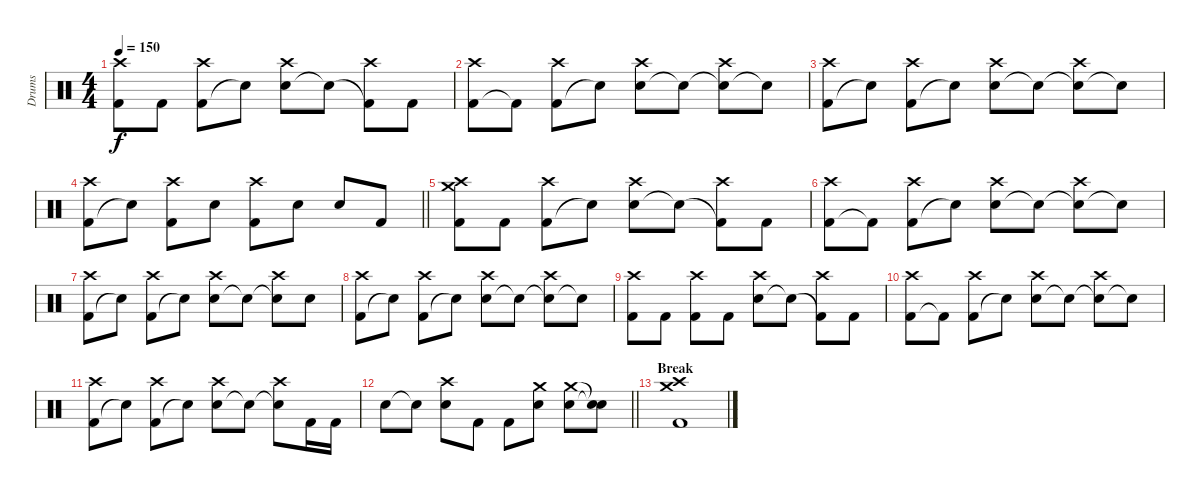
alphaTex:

\track ("Drums" "Drums") {instrument percussion}
\staff {score}
\articulation defaults
\ts (4 4)
\tempo 150
\clef neutral
\ks c
("Kick (hit) 2" "Crash high (hit)").8{dy f} "Kick (hit) 2".8 ("Kick (hit) 2" "Crash high (hit)").8 "Snare (hit)"{t}.8 ("Electric Snare (hit)" "Crash high (hit)").8 "Snare (hit)"{t}.8 ("Kick (hit) 2"{t} "Crash high (hit)").8 "Kick (hit) 2".8 |
("Kick (hit) 2" "Crash high (hit)").8 "Kick (hit) 2"{t}.8 ("Kick (hit) 2" "Crash high (hit)").8 "Electric Snare (hit)"{t}.8 ("Electric Snare (hit)" "Crash high (hit)").8 "Snare (hit)"{t}.8 ("Snare (hit)"{t} "Crash high (hit)").8 "Snare (hit)"{t}.8 |
("Kick (hit) 2" "Crash high (hit)").8 "Snare (hit)"{t}.8 ("Kick (hit) 2" "Crash high (hit)").8 "Snare (hit)"{t}.8 ("Electric Snare (hit)" "Crash high (hit)").8 "Snare (hit)"{t}.8 ("Snare (hit)"{t} "Crash high (hit)").8 "Electric Snare (hit)"{t}.8 |
\barLineRight lightlight
("Kick (hit) 2" "Crash high (hit)").8 "Snare (hit)"{t}.8 ("Kick (hit) 2" "Crash high (hit)").8 "Electric Snare (hit)".8 ("Kick (hit) 2" "Crash high (hit)").8 "Electric Snare (hit)".8 "Electric Snare (hit)".8 "Kick (hit) 2".8 |
("Kick (hit) 2" "Crash medium (hit)" "Crash high (hit)").8 "Kick (hit) 2".8 ("Kick (hit) 2" "Crash high (hit)").8 "Snare (hit)"{t}.8 ("Electric Snare (hit)" "Crash high (hit)").8 "Snare (hit)"{t}.8 ("Kick (hit) 2"{t} "Crash high (hit)").8 "Kick (hit) 2".8 |
("Kick (hit) 2" "Crash high (hit)").8 "Kick (hit) 2"{t}.8 ("Kick (hit) 2" "Crash high (hit)").8 "Electric Snare (hit)"{t}.8 ("Electric Snare (hit)" "Crash high (hit)").8 "Snare (hit)"{t}.8 ("Snare (hit)"{t} "Crash high (hit)").8 "Snare (hit)"{t}.8 |
("Kick (hit) 2" "Crash high (hit)").8 "Snare (hit)"{t}.8 ("Kick (hit) 2" "Crash high (hit)").8 "Snare (hit)"{t}.8 ("Electric Snare (hit)" "Crash high (hit)").8 "Snare (hit)"{t}.8 ("Snare (hit)"{t} "Crash high (hit)").8 "Electric Snare (hit)".8 |
("Kick (hit) 2" "Crash high (hit)").8 "Snare (hit)"{t}.8 ("Kick (hit) 2" "Crash high (hit)").8 "Snare (hit)"{t}.8 ("Electric Snare (hit)" "Crash high (hit)").8 "Snare (hit)"{t}.8 ("Snare (hit)"{t} "Crash high (hit)").8 "Snare (hit)"{t}.8 |
("Kick (hit) 2" "Crash high (hit)").8 "Kick (hit) 2".8 ("Kick (hit) 2" "Crash high (hit)").8 "Kick (hit) 2".8 ("Electric Snare (hit)" "Crash high (hit)").8 "Snare (hit)"{t}.8 ("Kick (hit) 2"{t} "Crash high (hit)").8 "Kick (hit) 2".8 |
("Kick (hit) 2" "Crash high (hit)").8 "Kick (hit) 2"{t}.8 ("Kick (hit) 2" "Crash high (hit)").8 "Electric Snare (hit)"{t}.8 ("Electric Snare (hit)" "Crash high (hit)").8 "Snare (hit)"{t}.8 ("Snare (hit)"{t} "Crash high (hit)").8 "Snare (hit)"{t}.8 |
("Kick (hit) 2" "Crash high (hit)").8 "Snare (hit)"{t}.8 ("Kick (hit) 2" "Crash high (hit)").8 "Snare (hit)"{t}.8 ("Electric Snare (hit)" "Crash high (hit)").8 "Snare (hit)"{t}.8 ("Snare (hit)"{t} "Crash high (hit)").8 "Kick (hit) 2".16 "Kick (hit) 2".16 |
\barLineRight lightlight "Electric Snare (hit)".8 "Snare (hit)"{t}.8
("Electric Snare (hit)" "Crash high (hit)").8 "Kick (hit) 2".8 "Kick (hit) 2".8 ("Electric Snare (hit)" "Crash medium (hit)").8 ("Electric Snare (hit)" "Crash medium (hit)").8 ("Electric Snare (hit)"{t} "Snare (hit)"{t}).8 |
\section ("" "Break")
("Kick (hit) 2" "Crash medium (hit)" "Crash high (hit)").1
